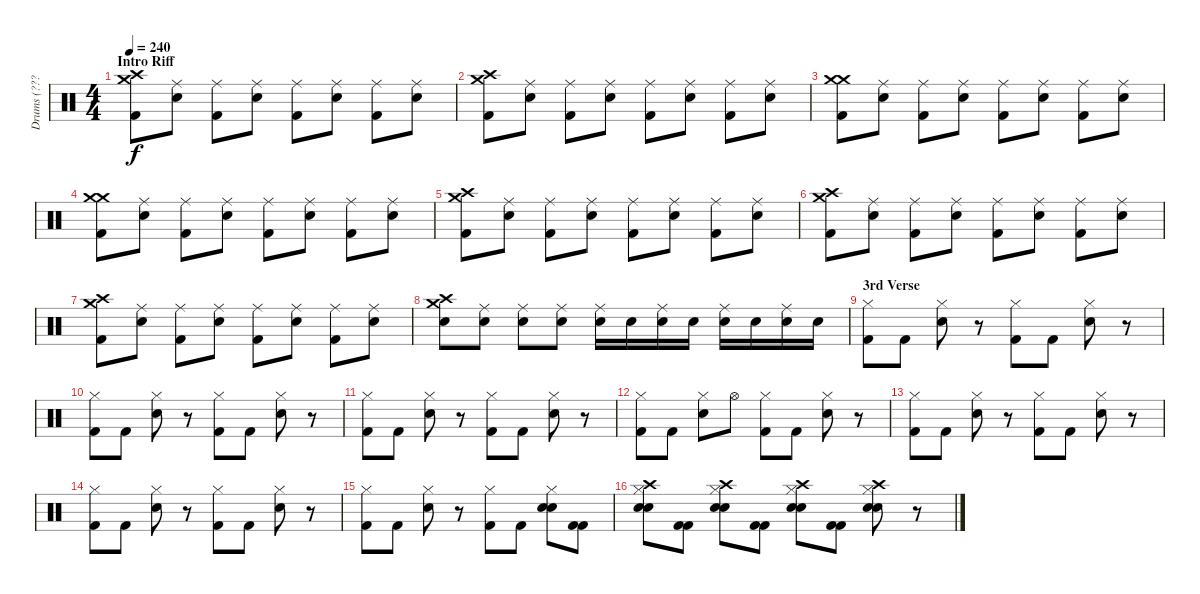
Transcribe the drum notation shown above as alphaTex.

\track ("Drums (????)" "Drums (???") {instrument percussion}
\staff {score}
\articulation defaults
\ts (4 4)
\section ("" "Intro Riff")
\tempo 240
\clef neutral
\ks c
("Crash medium (hit)" "Crash high (hit)" "Kick (hit) 2").8{dy f} ("Ride (middle)" "Snare (hit) 2").8 ("Ride (middle)" "Kick (hit) 2").8 ("Ride (middle)" "Snare (hit) 2").8 ("Ride (middle)" "Kick (hit) 2").8 ("Ride (middle)" "Snare (hit) 2").8 ("Ride (middle)" "Kick (hit) 2").8 ("Ride (middle)" "Snare (hit) 2").8 |
("Crash medium (hit)" "Crash high (hit)" "Kick (hit) 2").8 ("Ride (middle)" "Snare (hit) 2").8 ("Ride (middle)" "Kick (hit) 2").8 ("Ride (middle)" "Snare (hit) 2").8 ("Ride (middle)" "Kick (hit) 2").8 ("Ride (middle)" "Snare (hit) 2").8 ("Ride (middle)" "Kick (hit) 2").8 ("Ride (middle)" "Snare (hit) 2").8 |
("Crash medium (hit)" "Crash medium (hit)" "Kick (hit) 2").8 ("Ride (middle)" "Snare (hit) 2").8 ("Ride (middle)" "Kick (hit) 2").8 ("Ride (middle)" "Snare (hit) 2").8 ("Ride (middle)" "Kick (hit) 2").8 ("Ride (middle)" "Snare (hit) 2").8 ("Ride (middle)" "Kick (hit) 2").8 ("Ride (middle)" "Snare (hit) 2").8 |
("Crash medium (hit)" "Crash medium (hit)" "Kick (hit) 2").8 ("Ride (middle)" "Snare (hit) 2").8 ("Ride (middle)" "Kick (hit) 2").8 ("Ride (middle)" "Snare (hit) 2").8 ("Ride (middle)" "Kick (hit) 2").8 ("Ride (middle)" "Snare (hit) 2").8 ("Ride (middle)" "Kick (hit) 2").8 ("Ride (middle)" "Snare (hit) 2").8 |
("Crash medium (hit)" "Crash high (hit)" "Kick (hit) 2").8 ("Ride (middle)" "Snare (hit) 2").8 ("Ride (middle)" "Kick (hit) 2").8 ("Ride (middle)" "Snare (hit) 2").8 ("Ride (middle)" "Kick (hit) 2").8 ("Ride (middle)" "Snare (hit) 2").8 ("Ride (middle)" "Kick (hit) 2").8 ("Ride (middle)" "Snare (hit) 2").8 |
("Crash medium (hit)" "Crash high (hit)" "Kick (hit) 2").8 ("Ride (middle)" "Snare (hit) 2").8 ("Ride (middle)" "Kick (hit) 2").8 ("Ride (middle)" "Snare (hit) 2").8 ("Ride (middle)" "Kick (hit) 2").8 ("Ride (middle)" "Snare (hit) 2").8 ("Ride (middle)" "Kick (hit) 2").8 ("Ride (middle)" "Snare (hit) 2").8 |
("Crash medium (hit)" "Crash high (hit)" "Kick (hit) 2").8 ("Ride (middle)" "Snare (hit) 2").8 ("Ride (middle)" "Kick (hit) 2").8 ("Ride (middle)" "Snare (hit) 2").8 ("Ride (middle)" "Kick (hit) 2").8 ("Ride (middle)" "Snare (hit) 2").8 ("Ride (middle)" "Kick (hit) 2").8 ("Ride (middle)" "Snare (hit) 2").8 |
("Crash medium (hit)" "Crash high (hit)" "Snare (hit) 2").8 ("Ride (middle)" "Snare (hit) 2").8 ("Ride (middle)" "Snare (hit) 2").8 ("Ride (middle)" "Snare (hit) 2").8 ("Ride (middle)" "Snare (hit) 2").16 "Snare (hit) 2".16 ("Ride (middle)" "Snare (hit) 2").16 "Snare (hit) 2".16 ("Ride (middle)" "Snare (hit) 2").16 "Snare (hit) 2".16 ("Ride (middle)" "Snare (hit) 2").16 "Snare (hit) 2".16 |
\section ("" "3rd Verse")
("Hi-Hat (closed)" "Kick (hit) 2").8 "Kick (hit) 2".8 ("Hi-Hat (closed)" "Snare (hit) 2").8 r.8 ("Hi-Hat (closed)" "Kick (hit) 2").8 "Kick (hit) 2".8 ("Hi-Hat (closed)" "Snare (hit) 2").8 r.8 |
("Hi-Hat (closed)" "Kick (hit) 2").8 "Kick (hit) 2".8 ("Hi-Hat (closed)" "Snare (hit) 2").8 r.8 ("Hi-Hat (closed)" "Kick (hit) 2").8 "Kick (hit) 2".8 ("Hi-Hat (closed)" "Snare (hit) 2").8 r.8 |
("Hi-Hat (closed)" "Kick (hit) 2").8 "Kick (hit) 2".8 ("Hi-Hat (closed)" "Snare (hit) 2").8 r.8 ("Hi-Hat (closed)" "Kick (hit) 2").8 "Kick (hit) 2".8 ("Hi-Hat (closed)" "Snare (hit) 2").8 r.8 |
("Hi-Hat (closed)" "Kick (hit) 2").8 "Kick (hit) 2".8 ("Hi-Hat (closed)" "Snare (hit) 2").8 "Hi-Hat (open)".8 ("Hi-Hat (closed)" "Kick (hit) 2").8 "Kick (hit) 2".8 ("Hi-Hat (closed)" "Snare (hit) 2").8 r.8 |
("Hi-Hat (closed)" "Kick (hit) 2").8 "Kick (hit) 2".8 ("Hi-Hat (closed)" "Snare (hit) 2").8 r.8 ("Hi-Hat (closed)" "Kick (hit) 2").8 "Kick (hit) 2".8 ("Hi-Hat (closed)" "Snare (hit) 2").8 r.8 |
("Hi-Hat (closed)" "Kick (hit) 2").8 "Kick (hit) 2".8 ("Hi-Hat (closed)" "Snare (hit) 2").8 r.8 ("Hi-Hat (closed)" "Kick (hit) 2").8 "Kick (hit) 2".8 ("Hi-Hat (closed)" "Snare (hit) 2").8 r.8 |
("Hi-Hat (closed)" "Kick (hit) 2").8 "Kick (hit) 2".8 ("Hi-Hat (closed)" "Snare (hit) 2").8 r.8 ("Hi-Hat (closed)" "Kick (hit) 2").8 "Kick (hit) 2".8 ("Hi-Hat (closed)" "Snare (hit) 2" "Snare (hit) 2").8 ("Kick (hit) 2" "Kick (hit) 2").8 |
("Hi-Hat (closed)" "Snare (hit) 2" "Snare (hit) 2" "Crash high (hit)").8 ("Kick (hit) 2" "Kick (hit) 2").8 ("Hi-Hat (closed)" "Snare (hit) 2" "Snare (hit) 2" "Crash high (hit)").8 ("Kick (hit) 2" "Kick (hit) 2").8 ("Hi-Hat (closed)" "Snare (hit) 2" "Snare (hit) 2" "Crash high (hit)").8 ("Kick (hit) 2" "Kick (hit) 2").8 ("Hi-Hat (closed)" "Snare (hit) 2" "Snare (hit) 2" "Crash high (hit)").8 r.8
